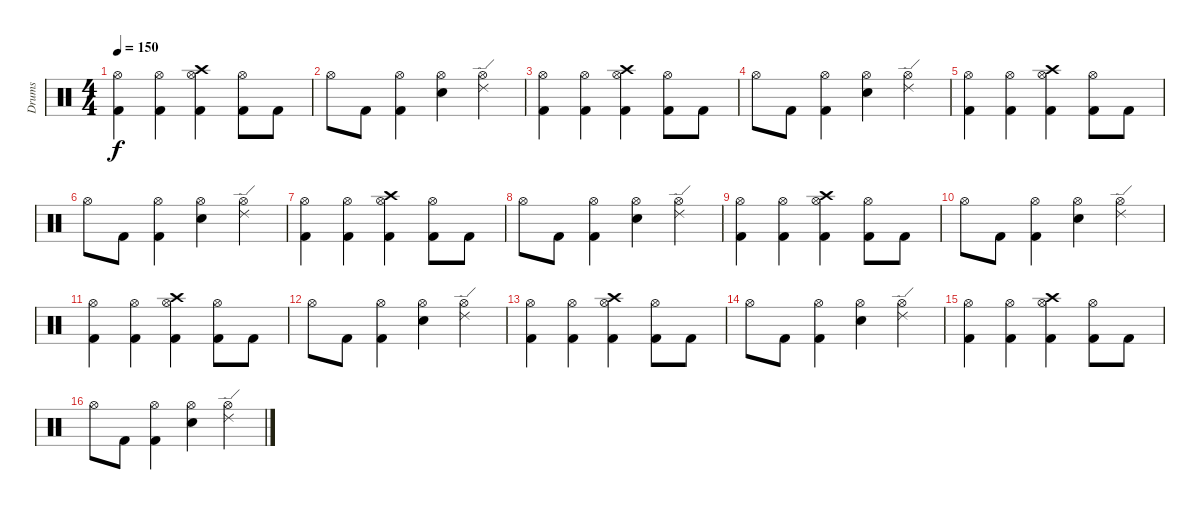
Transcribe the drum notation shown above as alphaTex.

\track ("Drums" "Drums") {instrument percussion}
\staff {score}
\articulation defaults
\ts (4 4)
\tempo 150
\clef neutral
\ks c
("Hi-Hat (open)" "Kick (hit) 2").4{dy f} ("Hi-Hat (open)" "Kick (hit) 2").4 ("Crash high (hit)" "Hi-Hat (open)" "Kick (hit) 2").4 ("Hi-Hat (open)" "Kick (hit) 2").8 "Kick (hit) 2".8 |
"Hi-Hat (open)".8 "Kick (hit) 2".8 ("Hi-Hat (open)" "Kick (hit) 2").4 ("Hi-Hat (open)" "Snare (hit) 2").4 ("Ride (edge) 2" "Hi-Hat (open)").4 |
("Hi-Hat (open)" "Kick (hit) 2").4 ("Hi-Hat (open)" "Kick (hit) 2").4 ("Crash high (hit)" "Hi-Hat (open)" "Kick (hit) 2").4 ("Hi-Hat (open)" "Kick (hit) 2").8 "Kick (hit) 2".8 |
"Hi-Hat (open)".8 "Kick (hit) 2".8 ("Hi-Hat (open)" "Kick (hit) 2").4 ("Hi-Hat (open)" "Snare (hit) 2").4 ("Ride (edge) 2" "Hi-Hat (open)").4 |
("Hi-Hat (open)" "Kick (hit) 2").4 ("Hi-Hat (open)" "Kick (hit) 2").4 ("Crash high (hit)" "Hi-Hat (open)" "Kick (hit) 2").4 ("Hi-Hat (open)" "Kick (hit) 2").8 "Kick (hit) 2".8 |
"Hi-Hat (open)".8 "Kick (hit) 2".8 ("Hi-Hat (open)" "Kick (hit) 2").4 ("Hi-Hat (open)" "Snare (hit) 2").4 ("Ride (edge) 2" "Hi-Hat (open)").4 |
("Hi-Hat (open)" "Kick (hit) 2").4 ("Hi-Hat (open)" "Kick (hit) 2").4 ("Crash high (hit)" "Hi-Hat (open)" "Kick (hit) 2").4 ("Hi-Hat (open)" "Kick (hit) 2").8 "Kick (hit) 2".8 |
"Hi-Hat (open)".8 "Kick (hit) 2".8 ("Hi-Hat (open)" "Kick (hit) 2").4 ("Hi-Hat (open)" "Snare (hit) 2").4 ("Ride (edge) 2" "Hi-Hat (open)").4 |
("Hi-Hat (open)" "Kick (hit) 2").4 ("Hi-Hat (open)" "Kick (hit) 2").4 ("Crash high (hit)" "Hi-Hat (open)" "Kick (hit) 2").4 ("Hi-Hat (open)" "Kick (hit) 2").8 "Kick (hit) 2".8 |
"Hi-Hat (open)".8 "Kick (hit) 2".8 ("Hi-Hat (open)" "Kick (hit) 2").4 ("Hi-Hat (open)" "Snare (hit) 2").4 ("Ride (edge) 2" "Hi-Hat (open)").4 |
("Hi-Hat (open)" "Kick (hit) 2").4 ("Hi-Hat (open)" "Kick (hit) 2").4 ("Crash high (hit)" "Hi-Hat (open)" "Kick (hit) 2").4 ("Hi-Hat (open)" "Kick (hit) 2").8 "Kick (hit) 2".8 |
"Hi-Hat (open)".8 "Kick (hit) 2".8 ("Hi-Hat (open)" "Kick (hit) 2").4 ("Hi-Hat (open)" "Snare (hit) 2").4 ("Ride (edge) 2" "Hi-Hat (open)").4 |
("Hi-Hat (open)" "Kick (hit) 2").4 ("Hi-Hat (open)" "Kick (hit) 2").4 ("Crash high (hit)" "Hi-Hat (open)" "Kick (hit) 2").4 ("Hi-Hat (open)" "Kick (hit) 2").8 "Kick (hit) 2".8 |
"Hi-Hat (open)".8 "Kick (hit) 2".8 ("Hi-Hat (open)" "Kick (hit) 2").4 ("Hi-Hat (open)" "Snare (hit) 2").4 ("Ride (edge) 2" "Hi-Hat (open)").4 |
("Hi-Hat (open)" "Kick (hit) 2").4 ("Hi-Hat (open)" "Kick (hit) 2").4 ("Crash high (hit)" "Hi-Hat (open)" "Kick (hit) 2").4 ("Hi-Hat (open)" "Kick (hit) 2").8 "Kick (hit) 2".8 |
"Hi-Hat (open)".8 "Kick (hit) 2".8 ("Hi-Hat (open)" "Kick (hit) 2").4 ("Hi-Hat (open)" "Snare (hit) 2").4 ("Ride (edge) 2" "Hi-Hat (open)").4
